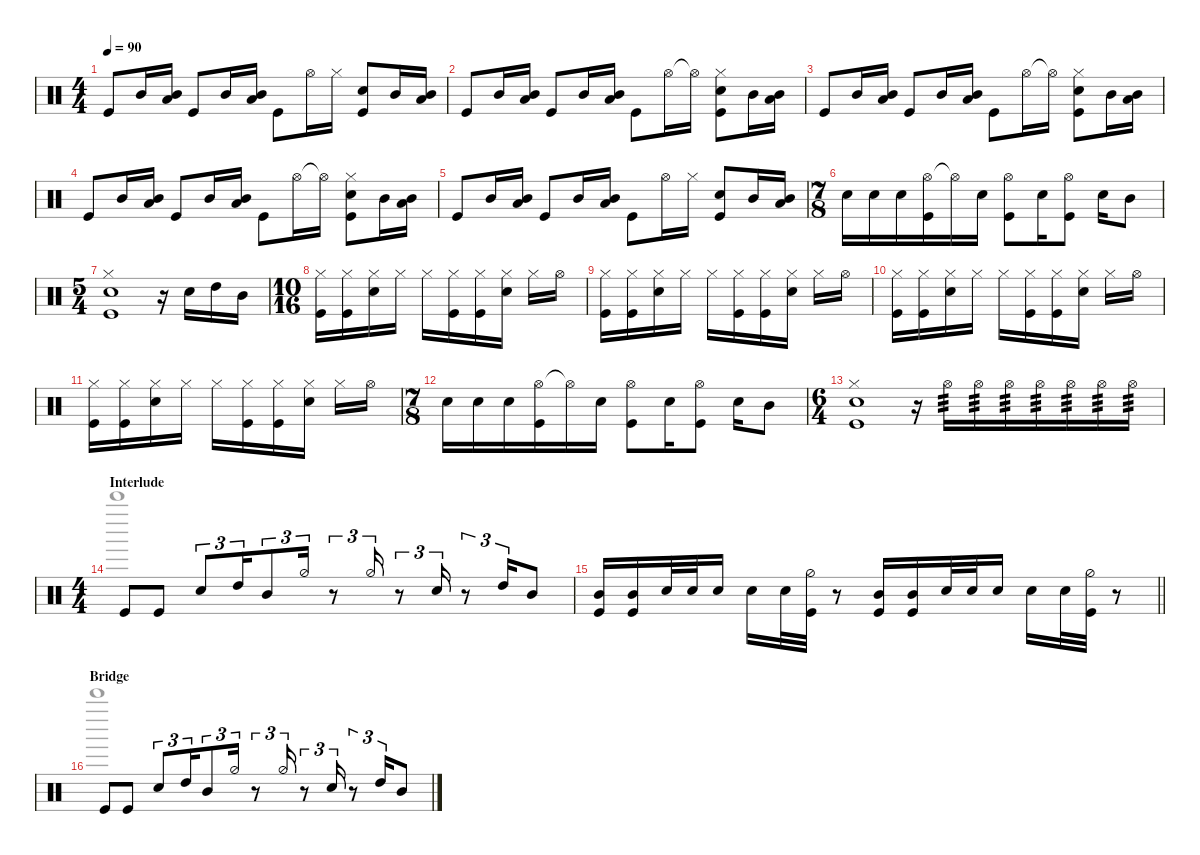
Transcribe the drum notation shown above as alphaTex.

\defaultSystemsLayout 4
\hideDynamics
\bracketExtendMode nobrackets
\singleTrackTrackNamePolicy hidden
\multiTrackTrackNamePolicy hidden
\otherSystemsTrackNameOrientation horizontal
\track ("Drumkit" "drm.") {instrument percussion}
\staff {score}
\articulation defaults
\voice
\ts (4 4)
\tempo 90
\clef neutral
\ks c "Kick (hit)".8{dy mf beam Up} "Mid Tom (hit)".16{beam Up}
("Mid Tom (hit)" "Low Tom (hit)").16{beam Up} "Kick (hit)".8{beam Up} "Mid Tom (hit)".16{beam Up} ("Mid Tom (hit)" "Low Tom (hit)").16{beam Up} "Kick (hit)".8{beam Down} "Hi-Hat (open)".16{dy f beam Down} "Hi-Hat (closed)".16{beam Down} ("Kick (hit)" "Snare (hit) 2").8{beam Up} "Mid Tom (hit)".16{beam Up} ("Mid Tom (hit)" "Low Tom (hit)").16{beam Up} |
"Kick (hit)".8{dy mf beam Up} "Mid Tom (hit)".16{beam Up} ("Mid Tom (hit)" "Low Tom (hit)").16{beam Up} "Kick (hit)".8{beam Up} "Mid Tom (hit)".16{beam Up} ("Mid Tom (hit)" "Low Tom (hit)").16{beam Up} "Kick (hit)".8{beam Down} "Hi-Hat (open)".16{dy f beam Down} "Hi-Hat (open)"{t}.16{beam Down} ("Kick (hit)" "Snare (hit) 2" "Hi-Hat (closed)").8{beam Down} "Mid Tom (hit)".16{beam Down} ("Mid Tom (hit)" "Low Tom (hit)").16{beam Down} |
"Kick (hit)".8{dy mf beam Up} "Mid Tom (hit)".16{beam Up} ("Mid Tom (hit)" "Low Tom (hit)").16{beam Up} "Kick (hit)".8{beam Up} "Mid Tom (hit)".16{beam Up} ("Mid Tom (hit)" "Low Tom (hit)").16{beam Up} "Kick (hit)".8{beam Down} "Hi-Hat (open)".16{dy f beam Down} "Hi-Hat (open)"{t}.16{beam Down} ("Kick (hit)" "Snare (hit) 2" "Hi-Hat (closed)").8{beam Down} "Mid Tom (hit)".16{beam Down} ("Mid Tom (hit)" "Low Tom (hit)").16{beam Down} |
"Kick (hit)".8{dy mf beam Up} "Mid Tom (hit)".16{beam Up} ("Mid Tom (hit)" "Low Tom (hit)").16{beam Up} "Kick (hit)".8{beam Up} "Mid Tom (hit)".16{beam Up} ("Mid Tom (hit)" "Low Tom (hit)").16{beam Up} "Kick (hit)".8{beam Down} "Hi-Hat (open)".16{dy f beam Down} "Hi-Hat (open)"{t}.16{beam Down} ("Kick (hit)" "Snare (hit) 2" "Hi-Hat (closed)").8{beam Down} "Mid Tom (hit)".16{beam Down} ("Mid Tom (hit)" "Low Tom (hit)").16{beam Down} |
"Kick (hit)".8{dy mf beam Up} "Mid Tom (hit)".16{beam Up} ("Mid Tom (hit)" "Low Tom (hit)").16{beam Up} "Kick (hit)".8{beam Up} "Mid Tom (hit)".16{beam Up} ("Mid Tom (hit)" "Low Tom (hit)").16{beam Up} "Kick (hit)".8{beam Down} "Hi-Hat (open)".16{dy f beam Down} "Hi-Hat (closed)".16{beam Down} ("Kick (hit)" "Snare (hit) 2").8{beam Up} "Mid Tom (hit)".16{beam Up} ("Mid Tom (hit)" "Low Tom (hit)").16{beam Up} |
\ts (7 8)
\beaming (8 3 2 2)
"Snare (hit) 2".16{dy mf beam Down} "Snare (hit) 2".16{beam Down} "Snare (hit) 2".16{beam Down} ("Hi-Hat (open)" "Kick (hit)").16{beam Down} "Hi-Hat (open)"{t}.16{beam Down} "Snare (hit) 2".16{beam Down} ("Hi-Hat (open)" "Kick (hit)").8{beam Down} "Snare (hit) 2".16{beam Down} ("Hi-Hat (open)" "Kick (hit)").8{beam Down} "Snare (hit) 2".16{beam Down} "Mid Tom (hit)".8{beam Down} |
\ts (5 4)
\beaming (8 6 4)
("Kick (hit)" "Hi-Hat (closed)" "Snare (hit) 2").1{dy ff beam Down} r.16{beam Down} "Snare (hit) 2".16{beam Down} "High Tom (hit)".16{beam Down} "Mid Tom (hit)".16{beam Down} |
\ts (10 16)
\beaming (8 2 2 1)
("Hi-Hat (closed)" "Kick (hit)").16{dy mp beam Down} ("Hi-Hat (closed)" "Kick (hit)").16{beam Down} ("Hi-Hat (closed)" "Snare (hit) 2").16{beam Down} "Hi-Hat (closed)".16{beam Down} "Hi-Hat (closed)".16{beam Down} ("Hi-Hat (closed)" "Kick (hit)").16{beam Down} ("Hi-Hat (closed)" "Kick (hit)").16{beam Down} ("Hi-Hat (closed)" "Snare (hit) 2").16{beam Down} "Hi-Hat (closed)".16{beam Down} "Hi-Hat (open)".16{dy f beam Down} |
("Hi-Hat (closed)" "Kick (hit)").16{dy mp beam Down} ("Hi-Hat (closed)" "Kick (hit)").16{beam Down} ("Hi-Hat (closed)" "Snare (hit) 2").16{beam Down} "Hi-Hat (closed)".16{beam Down} "Hi-Hat (closed)".16{beam Down} ("Hi-Hat (closed)" "Kick (hit)").16{beam Down} ("Hi-Hat (closed)" "Kick (hit)").16{beam Down} ("Hi-Hat (closed)" "Snare (hit) 2").16{beam Down} "Hi-Hat (closed)".16{beam Down} "Hi-Hat (open)".16{dy f beam Down} |
("Hi-Hat (closed)" "Kick (hit)").16{dy mp beam Down} ("Hi-Hat (closed)" "Kick (hit)").16{beam Down} ("Hi-Hat (closed)" "Snare (hit) 2").16{beam Down} "Hi-Hat (closed)".16{beam Down} "Hi-Hat (closed)".16{beam Down} ("Hi-Hat (closed)" "Kick (hit)").16{beam Down} ("Hi-Hat (closed)" "Kick (hit)").16{beam Down} ("Hi-Hat (closed)" "Snare (hit) 2").16{beam Down} "Hi-Hat (closed)".16{beam Down} "Hi-Hat (open)".16{dy f beam Down} |
("Hi-Hat (closed)" "Kick (hit)").16{dy mp beam Down} ("Hi-Hat (closed)" "Kick (hit)").16{beam Down} ("Hi-Hat (closed)" "Snare (hit) 2").16{beam Down} "Hi-Hat (closed)".16{beam Down} "Hi-Hat (closed)".16{beam Down} ("Hi-Hat (closed)" "Kick (hit)").16{beam Down} ("Hi-Hat (closed)" "Kick (hit)").16{beam Down} ("Hi-Hat (closed)" "Snare (hit) 2").16{beam Down} "Hi-Hat (closed)".16{beam Down} "Hi-Hat (open)".16{dy f beam Down} |
\ts (7 8)
\beaming (8 3 2 2)
"Snare (hit) 2".16{dy mf beam Down} "Snare (hit) 2".16{beam Down} "Snare (hit) 2".16{beam Down} ("Hi-Hat (open)" "Kick (hit)").16{beam Down} "Hi-Hat (open)"{t}.16{beam Down} "Snare (hit) 2".16{beam Down} ("Hi-Hat (open)" "Kick (hit)").8{beam Down} "Snare (hit) 2".16{beam Down} ("Hi-Hat (open)" "Kick (hit)").8{beam Down} "Snare (hit) 2".16{beam Down} "Mid Tom (hit)".8{beam Down} |
\ts (6 4)
\beaming (8 6 6)
("Kick (hit)" "Hi-Hat (closed)" "Snare (hit) 2").1{dy ff beam Down} r.16{beam Down} "Hi-Hat (open)".16{tp 3 dy mp beam Down} "Hi-Hat (open)".16{tp 3 beam Down} "Hi-Hat (open)".16{tp 3 beam Down} "Hi-Hat (open)".16{tp 3 beam Down} "Hi-Hat (open)".16{tp 3 beam Down} "Hi-Hat (open)".16{tp 3 beam Down} "Hi-Hat (open)".16{tp 3 beam Down} |
\ts (4 4)
\beaming (8 2 2 2 2)
\section ("" "Interlude")
"Kick (hit)".8{dy mf beam Up} "Kick (hit)".8{beam Up} "Snare (hit) 2".8{tu (3 2) beam Up} "High Tom (hit)".16{tu (3 2) beam Up beam merge} "Mid Tom (hit)".8{tu (3 2) beam Up beam merge} "Hi-Hat (half)".16{tu (3 2) beam Up beam split} r.8{tu (3 2) beam Up beam split} "Hi-Hat (half)".16{tu (3 2) beam Up} r.8{tu (3 2) beam Up} "Snare (hit) 2".16{tu (3 2) beam Up beam split} r.8{tu (3 2) beam Up beam merge} "High Tom (hit)".16{tu (3 2) beam Up beam merge} "Mid Tom (hit)".8{beam Up} |
\barLineRight lightlight
("Mid Tom (hit)" "Kick (hit)").16{beam Up} ("Mid Tom (hit)" "Kick (hit)").16{beam Up} "Snare (hit) 2".32{beam Up} "Snare (hit) 2".32{beam Up} "Snare (hit) 2".16{beam Up} "Snare (hit) 2".16{beam Down} "Snare (hit) 2".32{beam Down} ("Hi-Hat (half)" "Kick (hit)").32{dy fff beam Down} r.8{beam Down} ("Mid Tom (hit)" "Kick (hit)").16{dy mf beam Up} ("Mid Tom (hit)" "Kick (hit)").16{beam Up} "Snare (hit) 2".32{beam Up} "Snare (hit) 2".32{beam Up} "Snare (hit) 2".16{beam Up} "Snare (hit) 2".16{beam Down} "Snare (hit) 2".32{beam Down} ("Hi-Hat (half)" "Kick (hit)").32{dy fff beam Down} r.8{beam Down} |
\section ("" "Bridge")
"Kick (hit)".8{dy mf beam Up} "Kick (hit)".8{beam Up} "Snare (hit) 2".8{tu (3 2) beam Up} "High Tom (hit)".16{tu (3 2) beam Up beam merge} "Mid Tom (hit)".8{tu (3 2) beam Up beam merge} "Hi-Hat (half)".16{tu (3 2) beam Up beam split} r.8{tu (3 2) beam Up beam split} "Hi-Hat (half)".16{tu (3 2) beam Up} r.8{tu (3 2) beam Up} "Snare (hit) 2".16{tu (3 2) beam Up beam split} r.8{tu (3 2) beam Up beam merge} "High Tom (hit)".16{tu (3 2) beam Up beam merge} "Mid Tom (hit)".8{beam Up}
\voice
\clef neutral
\ottava regular
\simile none
\ks c
|
|
|
|
|
|
|
|
|
|
|
|
|
"Bell Tree (hit)".1{beam Down} |
\barLineRight lightlight
|
"Bell Tree (hit)".1{beam Down}
